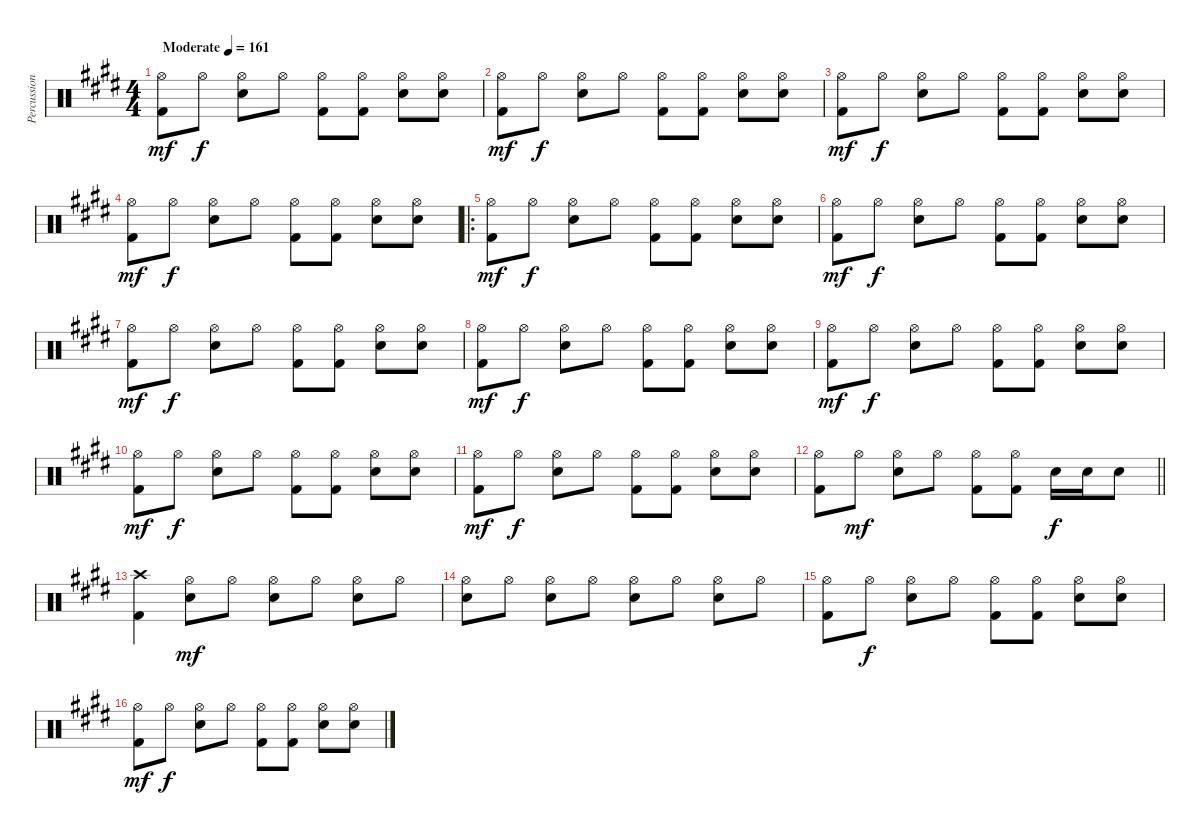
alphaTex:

\track ("Percussion" "Percussion") {instrument percussion}
\staff {score}
\articulation defaults
\ts (4 4)
\tempo (161 "Moderate")
\clef neutral
\ks e
("Hi-Hat (open)" "Kick (hit) 2").8{dy mf} "Hi-Hat (open)".8{dy f} ("Hi-Hat (open)" "Snare (hit) 2").8 "Hi-Hat (open)".8 ("Hi-Hat (open)" "Kick (hit) 2").8 ("Hi-Hat (open)" "Kick (hit) 2").8 ("Hi-Hat (open)" "Snare (hit) 2").8 ("Hi-Hat (open)" "Snare (hit) 2").8 |
("Hi-Hat (open)" "Kick (hit) 2").8{dy mf} "Hi-Hat (open)".8{dy f} ("Hi-Hat (open)" "Snare (hit) 2").8 "Hi-Hat (open)".8 ("Hi-Hat (open)" "Kick (hit) 2").8 ("Hi-Hat (open)" "Kick (hit) 2").8 ("Hi-Hat (open)" "Snare (hit) 2").8 ("Hi-Hat (open)" "Snare (hit) 2").8 |
("Hi-Hat (open)" "Kick (hit) 2").8{dy mf} "Hi-Hat (open)".8{dy f} ("Hi-Hat (open)" "Snare (hit) 2").8 "Hi-Hat (open)".8 ("Hi-Hat (open)" "Kick (hit) 2").8 ("Hi-Hat (open)" "Kick (hit) 2").8 ("Hi-Hat (open)" "Snare (hit) 2").8 ("Hi-Hat (open)" "Snare (hit) 2").8 |
("Hi-Hat (open)" "Kick (hit) 2").8{dy mf} "Hi-Hat (open)".8{dy f} ("Hi-Hat (open)" "Snare (hit) 2").8 "Hi-Hat (open)".8 ("Hi-Hat (open)" "Kick (hit) 2").8 ("Hi-Hat (open)" "Kick (hit) 2").8 ("Hi-Hat (open)" "Snare (hit) 2").8 ("Hi-Hat (open)" "Snare (hit) 2").8 |
\ro
("Hi-Hat (open)" "Kick (hit) 2").8{dy mf} "Hi-Hat (open)".8{dy f} ("Hi-Hat (open)" "Snare (hit) 2").8 "Hi-Hat (open)".8 ("Hi-Hat (open)" "Kick (hit) 2").8 ("Hi-Hat (open)" "Kick (hit) 2").8 ("Hi-Hat (open)" "Snare (hit) 2").8 ("Hi-Hat (open)" "Snare (hit) 2").8 |
("Hi-Hat (open)" "Kick (hit) 2").8{dy mf} "Hi-Hat (open)".8{dy f} ("Hi-Hat (open)" "Snare (hit) 2").8 "Hi-Hat (open)".8 ("Hi-Hat (open)" "Kick (hit) 2").8 ("Hi-Hat (open)" "Kick (hit) 2").8 ("Hi-Hat (open)" "Snare (hit) 2").8 ("Hi-Hat (open)" "Snare (hit) 2").8 |
("Hi-Hat (open)" "Kick (hit) 2").8{dy mf} "Hi-Hat (open)".8{dy f} ("Hi-Hat (open)" "Snare (hit) 2").8 "Hi-Hat (open)".8 ("Hi-Hat (open)" "Kick (hit) 2").8 ("Hi-Hat (open)" "Kick (hit) 2").8 ("Hi-Hat (open)" "Snare (hit) 2").8 ("Hi-Hat (open)" "Snare (hit) 2").8 |
("Hi-Hat (open)" "Kick (hit) 2").8{dy mf} "Hi-Hat (open)".8{dy f} ("Hi-Hat (open)" "Snare (hit) 2").8 "Hi-Hat (open)".8 ("Hi-Hat (open)" "Kick (hit) 2").8 ("Hi-Hat (open)" "Kick (hit) 2").8 ("Hi-Hat (open)" "Snare (hit) 2").8 ("Hi-Hat (open)" "Snare (hit) 2").8 |
("Hi-Hat (open)" "Kick (hit) 2").8{dy mf} "Hi-Hat (open)".8{dy f} ("Hi-Hat (open)" "Snare (hit) 2").8 "Hi-Hat (open)".8 ("Hi-Hat (open)" "Kick (hit) 2").8 ("Hi-Hat (open)" "Kick (hit) 2").8 ("Hi-Hat (open)" "Snare (hit) 2").8 ("Hi-Hat (open)" "Snare (hit) 2").8 |
("Hi-Hat (open)" "Kick (hit) 2").8{dy mf} "Hi-Hat (open)".8{dy f} ("Hi-Hat (open)" "Snare (hit) 2").8 "Hi-Hat (open)".8 ("Hi-Hat (open)" "Kick (hit) 2").8 ("Hi-Hat (open)" "Kick (hit) 2").8 ("Hi-Hat (open)" "Snare (hit) 2").8 ("Hi-Hat (open)" "Snare (hit) 2").8 |
("Hi-Hat (open)" "Kick (hit) 2").8{dy mf} "Hi-Hat (open)".8{dy f} ("Hi-Hat (open)" "Snare (hit) 2").8 "Hi-Hat (open)".8 ("Hi-Hat (open)" "Kick (hit) 2").8 ("Hi-Hat (open)" "Kick (hit) 2").8 ("Hi-Hat (open)" "Snare (hit) 2").8 ("Hi-Hat (open)" "Snare (hit) 2").8 |
\barLineRight lightlight
("Hi-Hat (open)" "Kick (hit) 2").8 "Hi-Hat (open)".8{dy mf} ("Hi-Hat (open)" "Snare (hit) 2").8 "Hi-Hat (open)".8 ("Hi-Hat (open)" "Kick (hit) 2").8 ("Hi-Hat (open)" "Kick (hit) 2").8 "Snare (hit) 2".16{dy f} "Snare (hit) 2".16 "Snare (hit) 2".8 |
("Crash high (hit)" "Kick (hit) 2").4 ("Snare (hit) 2" "Hi-Hat (open)").8{dy mf} "Hi-Hat (open)".8 ("Snare (hit) 2" "Hi-Hat (open)").8 "Hi-Hat (open)".8 ("Snare (hit) 2" "Hi-Hat (open)").8 "Hi-Hat (open)".8 |
("Hi-Hat (open)" "Snare (hit) 2").8 "Hi-Hat (open)".8 ("Hi-Hat (open)" "Snare (hit) 2").8 "Hi-Hat (open)".8 ("Hi-Hat (open)" "Snare (hit) 2").8 "Hi-Hat (open)".8 ("Hi-Hat (open)" "Snare (hit) 2").8 "Hi-Hat (open)".8 |
("Hi-Hat (open)" "Kick (hit) 2").8 "Hi-Hat (open)".8{dy f} ("Hi-Hat (open)" "Snare (hit) 2").8 "Hi-Hat (open)".8 ("Hi-Hat (open)" "Kick (hit) 2").8 ("Hi-Hat (open)" "Kick (hit) 2").8 ("Hi-Hat (open)" "Snare (hit) 2").8 ("Hi-Hat (open)" "Snare (hit) 2").8 |
("Hi-Hat (open)" "Kick (hit) 2").8{dy mf} "Hi-Hat (open)".8{dy f} ("Hi-Hat (open)" "Snare (hit) 2").8 "Hi-Hat (open)".8 ("Hi-Hat (open)" "Kick (hit) 2").8 ("Hi-Hat (open)" "Kick (hit) 2").8 ("Hi-Hat (open)" "Snare (hit) 2").8 ("Hi-Hat (open)" "Snare (hit) 2").8
